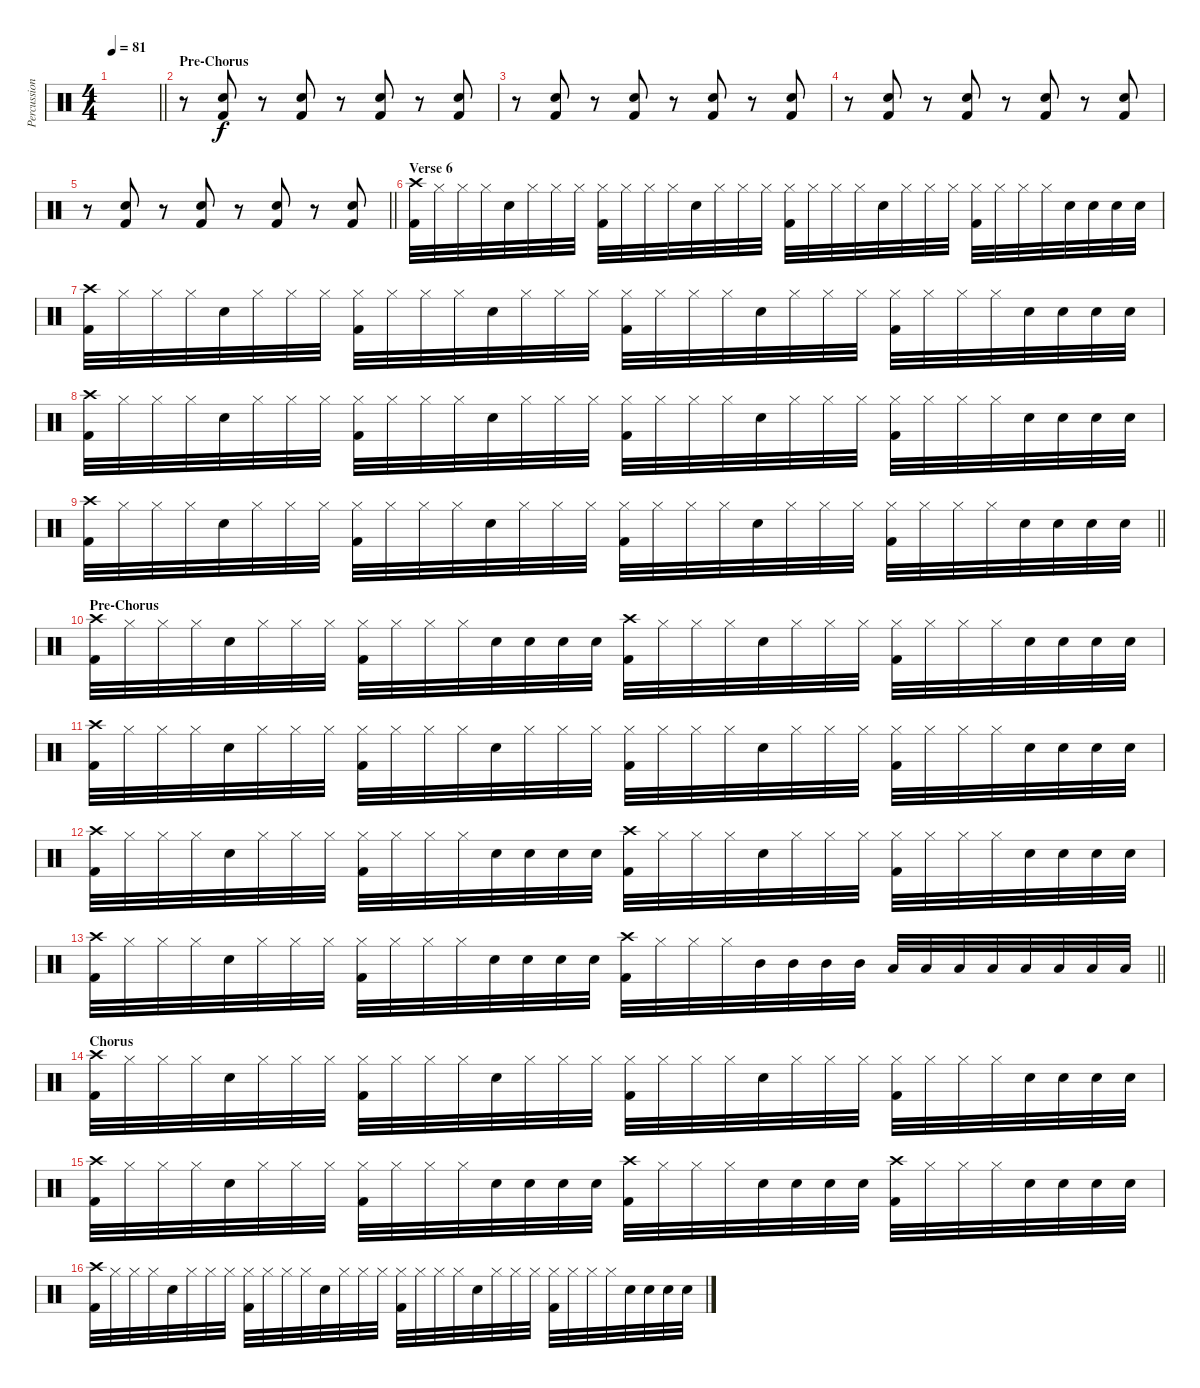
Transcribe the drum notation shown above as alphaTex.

\track ("Percussion" "Percussion") {instrument percussion}
\staff {score}
\articulation defaults
\ts (4 4)
\tempo 81
\clef neutral
\barLineRight lightlight
\ks c
|
\section ("" "Pre-Chorus")
r.8 ("Kick (hit) 2" "Snare (hit) 2").8 r.8 ("Kick (hit) 2" "Snare (hit) 2").8 r.8 ("Kick (hit) 2" "Snare (hit) 2").8 r.8 ("Kick (hit) 2" "Snare (hit) 2").8 |
r.8 ("Kick (hit) 2" "Snare (hit) 2").8 r.8 ("Kick (hit) 2" "Snare (hit) 2").8 r.8 ("Kick (hit) 2" "Snare (hit) 2").8 r.8 ("Kick (hit) 2" "Snare (hit) 2").8 |
r.8 ("Kick (hit) 2" "Snare (hit) 2").8 r.8 ("Kick (hit) 2" "Snare (hit) 2").8 r.8 ("Kick (hit) 2" "Snare (hit) 2").8 r.8 ("Kick (hit) 2" "Snare (hit) 2").8 |
\barLineRight lightlight
r.8 ("Kick (hit) 2" "Snare (hit) 2").8 r.8 ("Kick (hit) 2" "Snare (hit) 2").8 r.8 ("Kick (hit) 2" "Snare (hit) 2").8 r.8 ("Kick (hit) 2" "Snare (hit) 2").8 |
\section ("" "Verse 6")
("Crash high (hit)" "Kick (hit) 2").32 "Hi-Hat (closed)".32 "Hi-Hat (closed)".32 "Hi-Hat (closed)".32 "Snare (hit) 2".32 "Hi-Hat (closed)".32 "Hi-Hat (closed)".32 "Hi-Hat (closed)".32 ("Hi-Hat (closed)" "Kick (hit) 2").32 "Hi-Hat (closed)".32 "Hi-Hat (closed)".32 "Hi-Hat (closed)".32 "Snare (hit) 2".32 "Hi-Hat (closed)".32 "Hi-Hat (closed)".32 "Hi-Hat (closed)".32 ("Hi-Hat (closed)" "Kick (hit) 2").32 "Hi-Hat (closed)".32 "Hi-Hat (closed)".32 "Hi-Hat (closed)".32 "Snare (hit) 2".32 "Hi-Hat (closed)".32 "Hi-Hat (closed)".32 "Hi-Hat (closed)".32 ("Hi-Hat (closed)" "Kick (hit) 2").32 "Hi-Hat (closed)".32 "Hi-Hat (closed)".32 "Hi-Hat (closed)".32 "Snare (hit) 2".32 "Snare (hit) 2".32 "Snare (hit) 2".32 "Snare (hit) 2".32 |
("Crash high (hit)" "Kick (hit) 2").32 "Hi-Hat (closed)".32 "Hi-Hat (closed)".32 "Hi-Hat (closed)".32 "Snare (hit) 2".32 "Hi-Hat (closed)".32 "Hi-Hat (closed)".32 "Hi-Hat (closed)".32 ("Hi-Hat (closed)" "Kick (hit) 2").32 "Hi-Hat (closed)".32 "Hi-Hat (closed)".32 "Hi-Hat (closed)".32 "Snare (hit) 2".32 "Hi-Hat (closed)".32 "Hi-Hat (closed)".32 "Hi-Hat (closed)".32 ("Hi-Hat (closed)" "Kick (hit) 2").32 "Hi-Hat (closed)".32 "Hi-Hat (closed)".32 "Hi-Hat (closed)".32 "Snare (hit) 2".32 "Hi-Hat (closed)".32 "Hi-Hat (closed)".32 "Hi-Hat (closed)".32 ("Hi-Hat (closed)" "Kick (hit) 2").32 "Hi-Hat (closed)".32 "Hi-Hat (closed)".32 "Hi-Hat (closed)".32 "Snare (hit) 2".32 "Snare (hit) 2".32 "Snare (hit) 2".32 "Snare (hit) 2".32 |
("Crash high (hit)" "Kick (hit) 2").32 "Hi-Hat (closed)".32 "Hi-Hat (closed)".32 "Hi-Hat (closed)".32 "Snare (hit) 2".32 "Hi-Hat (closed)".32 "Hi-Hat (closed)".32 "Hi-Hat (closed)".32 ("Hi-Hat (closed)" "Kick (hit) 2").32 "Hi-Hat (closed)".32 "Hi-Hat (closed)".32 "Hi-Hat (closed)".32 "Snare (hit) 2".32 "Hi-Hat (closed)".32 "Hi-Hat (closed)".32 "Hi-Hat (closed)".32 ("Hi-Hat (closed)" "Kick (hit) 2").32 "Hi-Hat (closed)".32 "Hi-Hat (closed)".32 "Hi-Hat (closed)".32 "Snare (hit) 2".32 "Hi-Hat (closed)".32 "Hi-Hat (closed)".32 "Hi-Hat (closed)".32 ("Hi-Hat (closed)" "Kick (hit) 2").32 "Hi-Hat (closed)".32 "Hi-Hat (closed)".32 "Hi-Hat (closed)".32 "Snare (hit) 2".32 "Snare (hit) 2".32 "Snare (hit) 2".32 "Snare (hit) 2".32 |
\barLineRight lightlight
("Crash high (hit)" "Kick (hit) 2").32 "Hi-Hat (closed)".32 "Hi-Hat (closed)".32 "Hi-Hat (closed)".32 "Snare (hit) 2".32 "Hi-Hat (closed)".32 "Hi-Hat (closed)".32 "Hi-Hat (closed)".32 ("Hi-Hat (closed)" "Kick (hit) 2").32 "Hi-Hat (closed)".32 "Hi-Hat (closed)".32 "Hi-Hat (closed)".32 "Snare (hit) 2".32 "Hi-Hat (closed)".32 "Hi-Hat (closed)".32 "Hi-Hat (closed)".32 ("Hi-Hat (closed)" "Kick (hit) 2").32 "Hi-Hat (closed)".32 "Hi-Hat (closed)".32 "Hi-Hat (closed)".32 "Snare (hit) 2".32 "Hi-Hat (closed)".32 "Hi-Hat (closed)".32 "Hi-Hat (closed)".32 ("Hi-Hat (closed)" "Kick (hit) 2").32 "Hi-Hat (closed)".32 "Hi-Hat (closed)".32 "Hi-Hat (closed)".32 "Snare (hit) 2".32 "Snare (hit) 2".32 "Snare (hit) 2".32 "Snare (hit) 2".32 |
\section ("" "Pre-Chorus")
("Crash high (hit)" "Kick (hit) 2").32 "Hi-Hat (closed)".32 "Hi-Hat (closed)".32 "Hi-Hat (closed)".32 "Snare (hit) 2".32 "Hi-Hat (closed)".32 "Hi-Hat (closed)".32 "Hi-Hat (closed)".32 ("Hi-Hat (closed)" "Kick (hit) 2").32 "Hi-Hat (closed)".32 "Hi-Hat (closed)".32 "Hi-Hat (closed)".32 "Snare (hit) 2".32 "Snare (hit) 2".32 "Snare (hit) 2".32 "Snare (hit) 2".32 ("Crash high (hit)" "Kick (hit) 2").32 "Hi-Hat (closed)".32 "Hi-Hat (closed)".32 "Hi-Hat (closed)".32 "Snare (hit) 2".32 "Hi-Hat (closed)".32 "Hi-Hat (closed)".32 "Hi-Hat (closed)".32 ("Hi-Hat (closed)" "Kick (hit) 2").32 "Hi-Hat (closed)".32 "Hi-Hat (closed)".32 "Hi-Hat (closed)".32 "Snare (hit) 2".32 "Snare (hit) 2".32 "Snare (hit) 2".32 "Snare (hit) 2".32 |
("Crash high (hit)" "Kick (hit) 2").32 "Hi-Hat (closed)".32 "Hi-Hat (closed)".32 "Hi-Hat (closed)".32 "Snare (hit) 2".32 "Hi-Hat (closed)".32 "Hi-Hat (closed)".32 "Hi-Hat (closed)".32 ("Hi-Hat (closed)" "Kick (hit) 2").32 "Hi-Hat (closed)".32 "Hi-Hat (closed)".32 "Hi-Hat (closed)".32 "Snare (hit) 2".32 "Hi-Hat (closed)".32 "Hi-Hat (closed)".32 "Hi-Hat (closed)".32 ("Hi-Hat (closed)" "Kick (hit) 2").32 "Hi-Hat (closed)".32 "Hi-Hat (closed)".32 "Hi-Hat (closed)".32 "Snare (hit) 2".32 "Hi-Hat (closed)".32 "Hi-Hat (closed)".32 "Hi-Hat (closed)".32 ("Hi-Hat (closed)" "Kick (hit) 2").32 "Hi-Hat (closed)".32 "Hi-Hat (closed)".32 "Hi-Hat (closed)".32 "Snare (hit) 2".32 "Snare (hit) 2".32 "Snare (hit) 2".32 "Snare (hit) 2".32 |
("Crash high (hit)" "Kick (hit) 2").32 "Hi-Hat (closed)".32 "Hi-Hat (closed)".32 "Hi-Hat (closed)".32 "Snare (hit) 2".32 "Hi-Hat (closed)".32 "Hi-Hat (closed)".32 "Hi-Hat (closed)".32 ("Hi-Hat (closed)" "Kick (hit) 2").32 "Hi-Hat (closed)".32 "Hi-Hat (closed)".32 "Hi-Hat (closed)".32 "Snare (hit) 2".32 "Snare (hit) 2".32 "Snare (hit) 2".32 "Snare (hit) 2".32 ("Crash high (hit)" "Kick (hit) 2").32 "Hi-Hat (closed)".32 "Hi-Hat (closed)".32 "Hi-Hat (closed)".32 "Snare (hit) 2".32 "Hi-Hat (closed)".32 "Hi-Hat (closed)".32 "Hi-Hat (closed)".32 ("Hi-Hat (closed)" "Kick (hit) 2").32 "Hi-Hat (closed)".32 "Hi-Hat (closed)".32 "Hi-Hat (closed)".32 "Snare (hit) 2".32 "Snare (hit) 2".32 "Snare (hit) 2".32 "Snare (hit) 2".32 |
\barLineRight lightlight
("Crash high (hit)" "Kick (hit) 2").32 "Hi-Hat (closed)".32 "Hi-Hat (closed)".32 "Hi-Hat (closed)".32 "Snare (hit) 2".32 "Hi-Hat (closed)".32 "Hi-Hat (closed)".32 "Hi-Hat (closed)".32 ("Hi-Hat (closed)" "Kick (hit) 2").32 "Hi-Hat (closed)".32 "Hi-Hat (closed)".32 "Hi-Hat (closed)".32 "Snare (hit) 2".32 "Snare (hit) 2".32 "Snare (hit) 2".32 "Snare (hit) 2".32 ("Crash high (hit)" "Kick (hit) 2").32 "Hi-Hat (closed)".32 "Hi-Hat (closed)".32 "Hi-Hat (closed)".32 "Mid Tom (hit)".32 "Mid Tom (hit)".32 "Mid Tom (hit)".32 "Mid Tom (hit)".32 "Low Tom (hit)".32 "Low Tom (hit)".32 "Low Tom (hit)".32 "Low Tom (hit)".32 "Low Floor Tom (hit)".32 "Low Floor Tom (hit)".32 "Low Floor Tom (hit)".32 "Low Floor Tom (hit)".32 |
\section ("" "Chorus")
("Crash high (hit)" "Kick (hit) 2").32 "Hi-Hat (closed)".32 "Hi-Hat (closed)".32 "Hi-Hat (closed)".32 "Snare (hit) 2".32 "Hi-Hat (closed)".32 "Hi-Hat (closed)".32 "Hi-Hat (closed)".32 ("Hi-Hat (closed)" "Kick (hit) 2").32 "Hi-Hat (closed)".32 "Hi-Hat (closed)".32 "Hi-Hat (closed)".32 "Snare (hit) 2".32 "Hi-Hat (closed)".32 "Hi-Hat (closed)".32 "Hi-Hat (closed)".32 ("Hi-Hat (closed)" "Kick (hit) 2").32 "Hi-Hat (closed)".32 "Hi-Hat (closed)".32 "Hi-Hat (closed)".32 "Snare (hit) 2".32 "Hi-Hat (closed)".32 "Hi-Hat (closed)".32 "Hi-Hat (closed)".32 ("Hi-Hat (closed)" "Kick (hit) 2").32 "Hi-Hat (closed)".32 "Hi-Hat (closed)".32 "Hi-Hat (closed)".32 "Snare (hit) 2".32 "Snare (hit) 2".32 "Snare (hit) 2".32 "Snare (hit) 2".32 |
("Crash high (hit)" "Kick (hit) 2").32 "Hi-Hat (closed)".32 "Hi-Hat (closed)".32 "Hi-Hat (closed)".32 "Snare (hit) 2".32 "Hi-Hat (closed)".32 "Hi-Hat (closed)".32 "Hi-Hat (closed)".32 ("Hi-Hat (closed)" "Kick (hit) 2").32 "Hi-Hat (closed)".32 "Hi-Hat (closed)".32 "Hi-Hat (closed)".32 "Snare (hit) 2".32 "Snare (hit) 2".32 "Snare (hit) 2".32 "Snare (hit) 2".32 ("Crash high (hit)" "Kick (hit) 2").32 "Hi-Hat (closed)".32 "Hi-Hat (closed)".32 "Hi-Hat (closed)".32 "Snare (hit) 2".32 "Snare (hit) 2".32 "Snare (hit) 2".32 "Snare (hit) 2".32 ("Crash high (hit)" "Kick (hit) 2").32 "Hi-Hat (closed)".32 "Hi-Hat (closed)".32 "Hi-Hat (closed)".32 "Snare (hit) 2".32 "Snare (hit) 2".32 "Snare (hit) 2".32 "Snare (hit) 2".32 |
("Crash high (hit)" "Kick (hit) 2").32 "Hi-Hat (closed)".32 "Hi-Hat (closed)".32 "Hi-Hat (closed)".32 "Snare (hit) 2".32 "Hi-Hat (closed)".32 "Hi-Hat (closed)".32 "Hi-Hat (closed)".32 ("Hi-Hat (closed)" "Kick (hit) 2").32 "Hi-Hat (closed)".32 "Hi-Hat (closed)".32 "Hi-Hat (closed)".32 "Snare (hit) 2".32 "Hi-Hat (closed)".32 "Hi-Hat (closed)".32 "Hi-Hat (closed)".32 ("Hi-Hat (closed)" "Kick (hit) 2").32 "Hi-Hat (closed)".32 "Hi-Hat (closed)".32 "Hi-Hat (closed)".32 "Snare (hit) 2".32 "Hi-Hat (closed)".32 "Hi-Hat (closed)".32 "Hi-Hat (closed)".32 ("Hi-Hat (closed)" "Kick (hit) 2").32 "Hi-Hat (closed)".32 "Hi-Hat (closed)".32 "Hi-Hat (closed)".32 "Snare (hit) 2".32 "Snare (hit) 2".32 "Snare (hit) 2".32 "Snare (hit) 2".32
